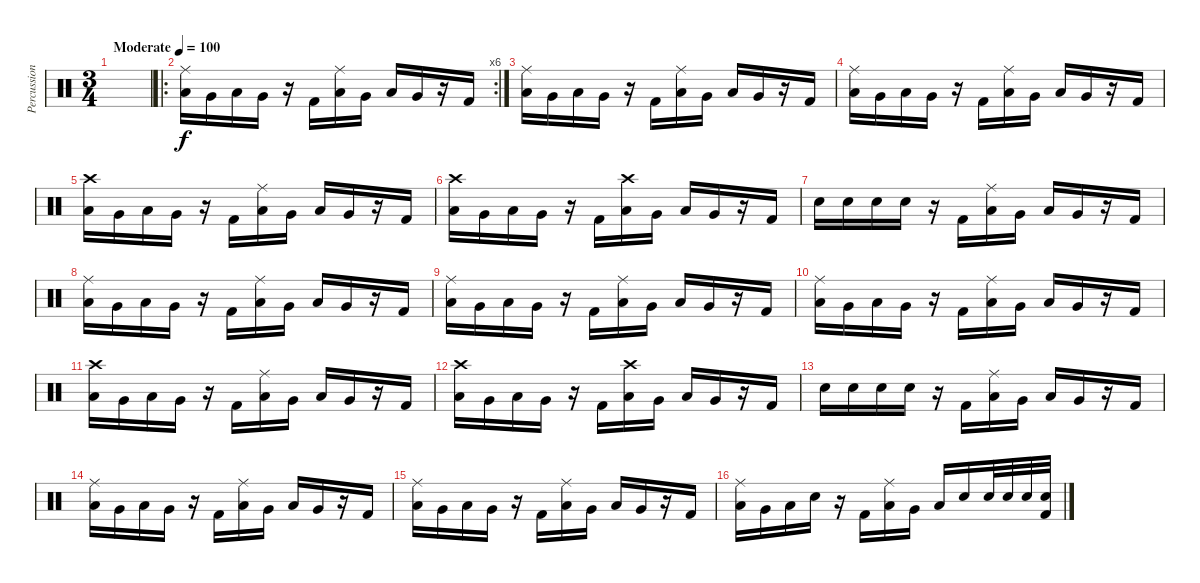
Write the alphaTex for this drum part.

\track ("Percussion" "Percussion") {instrument percussion}
\staff {score}
\articulation defaults
\ts (3 4)
\tempo (100 "Moderate")
\clef neutral
\ks c
|
\ro
\rc 6
("Ride (middle)" "Low Floor Tom (hit)").16 "Very Low Tom (hit)".16 "Low Floor Tom (hit)".16 "Very Low Tom (hit)".16 r.16 "Kick (hit) 2".16 ("Ride (middle)" "Low Floor Tom (hit)").16 "Very Low Tom (hit)".16 "Low Floor Tom (hit)".16 "Very Low Tom (hit)".16 r.16 "Kick (hit) 2".16 |
("Ride (middle)" "Low Floor Tom (hit)").16 "Very Low Tom (hit)".16 "Low Floor Tom (hit)".16 "Very Low Tom (hit)".16 r.16 "Kick (hit) 2".16 ("Ride (middle)" "Low Floor Tom (hit)").16 "Very Low Tom (hit)".16 "Low Floor Tom (hit)".16 "Very Low Tom (hit)".16 r.16 "Kick (hit) 2".16 |
("Ride (middle)" "Low Floor Tom (hit)").16 "Very Low Tom (hit)".16 "Low Floor Tom (hit)".16 "Very Low Tom (hit)".16 r.16 "Kick (hit) 2".16 ("Ride (middle)" "Low Floor Tom (hit)").16 "Very Low Tom (hit)".16 "Low Floor Tom (hit)".16 "Very Low Tom (hit)".16 r.16 "Kick (hit) 2".16 |
("Crash high (hit)" "Low Floor Tom (hit)").16 "Very Low Tom (hit)".16 "Low Floor Tom (hit)".16 "Very Low Tom (hit)".16 r.16 "Kick (hit) 2".16 ("Ride (middle)" "Low Floor Tom (hit)").16 "Very Low Tom (hit)".16 "Low Floor Tom (hit)".16 "Very Low Tom (hit)".16 r.16 "Kick (hit) 2".16 |
("Crash high (hit)" "Low Floor Tom (hit)").16 "Very Low Tom (hit)".16 "Low Floor Tom (hit)".16 "Very Low Tom (hit)".16 r.16 "Kick (hit) 2".16 ("Crash high (hit)" "Low Floor Tom (hit)").16 "Very Low Tom (hit)".16 "Low Floor Tom (hit)".16 "Very Low Tom (hit)".16 r.16 "Kick (hit) 2".16 |
"Snare (hit) 2".16 "Snare (hit) 2".16 "Snare (hit) 2".16 "Snare (hit) 2".16 r.16 "Kick (hit) 2".16 ("Ride (middle)" "Low Floor Tom (hit)").16 "Very Low Tom (hit)".16 "Low Floor Tom (hit)".16 "Very Low Tom (hit)".16 r.16 "Kick (hit) 2".16 |
("Ride (middle)" "Low Floor Tom (hit)").16 "Very Low Tom (hit)".16 "Low Floor Tom (hit)".16 "Very Low Tom (hit)".16 r.16 "Kick (hit) 2".16 ("Ride (middle)" "Low Floor Tom (hit)").16 "Very Low Tom (hit)".16 "Low Floor Tom (hit)".16 "Very Low Tom (hit)".16 r.16 "Kick (hit) 2".16 |
("Ride (middle)" "Low Floor Tom (hit)").16 "Very Low Tom (hit)".16 "Low Floor Tom (hit)".16 "Very Low Tom (hit)".16 r.16 "Kick (hit) 2".16 ("Ride (middle)" "Low Floor Tom (hit)").16 "Very Low Tom (hit)".16 "Low Floor Tom (hit)".16 "Very Low Tom (hit)".16 r.16 "Kick (hit) 2".16 |
("Ride (middle)" "Low Floor Tom (hit)").16 "Very Low Tom (hit)".16 "Low Floor Tom (hit)".16 "Very Low Tom (hit)".16 r.16 "Kick (hit) 2".16 ("Ride (middle)" "Low Floor Tom (hit)").16 "Very Low Tom (hit)".16 "Low Floor Tom (hit)".16 "Very Low Tom (hit)".16 r.16 "Kick (hit) 2".16 |
("Crash high (hit)" "Low Floor Tom (hit)").16 "Very Low Tom (hit)".16 "Low Floor Tom (hit)".16 "Very Low Tom (hit)".16 r.16 "Kick (hit) 2".16 ("Ride (middle)" "Low Floor Tom (hit)").16 "Very Low Tom (hit)".16 "Low Floor Tom (hit)".16 "Very Low Tom (hit)".16 r.16 "Kick (hit) 2".16 |
("Crash high (hit)" "Low Floor Tom (hit)").16 "Very Low Tom (hit)".16 "Low Floor Tom (hit)".16 "Very Low Tom (hit)".16 r.16 "Kick (hit) 2".16 ("Crash high (hit)" "Low Floor Tom (hit)").16 "Very Low Tom (hit)".16 "Low Floor Tom (hit)".16 "Very Low Tom (hit)".16 r.16 "Kick (hit) 2".16 |
"Snare (hit) 2".16 "Snare (hit) 2".16 "Snare (hit) 2".16 "Snare (hit) 2".16 r.16 "Kick (hit) 2".16 ("Ride (middle)" "Low Floor Tom (hit)").16 "Very Low Tom (hit)".16 "Low Floor Tom (hit)".16 "Very Low Tom (hit)".16 r.16 "Kick (hit) 2".16 |
("Ride (middle)" "Low Floor Tom (hit)").16 "Very Low Tom (hit)".16 "Low Floor Tom (hit)".16 "Very Low Tom (hit)".16 r.16 "Kick (hit) 2".16 ("Ride (middle)" "Low Floor Tom (hit)").16 "Very Low Tom (hit)".16 "Low Floor Tom (hit)".16 "Very Low Tom (hit)".16 r.16 "Kick (hit) 2".16 |
("Ride (middle)" "Low Floor Tom (hit)").16 "Very Low Tom (hit)".16 "Low Floor Tom (hit)".16 "Very Low Tom (hit)".16 r.16 "Kick (hit) 2".16 ("Ride (middle)" "Low Floor Tom (hit)").16 "Very Low Tom (hit)".16 "Low Floor Tom (hit)".16 "Very Low Tom (hit)".16 r.16 "Kick (hit) 2".16 |
("Ride (middle)" "Low Floor Tom (hit)").16 "Very Low Tom (hit)".16 "Low Floor Tom (hit)".16 "Snare (hit) 2".16 r.16 "Kick (hit) 2".16 ("Ride (middle)" "Low Floor Tom (hit)").16 "Very Low Tom (hit)".16 "Low Floor Tom (hit)".16 "Snare (hit) 2".16 "Snare (hit) 2".32 "Snare (hit) 2".32 "Snare (hit) 2".32 ("Snare (hit) 2" "Kick (hit) 2").32
